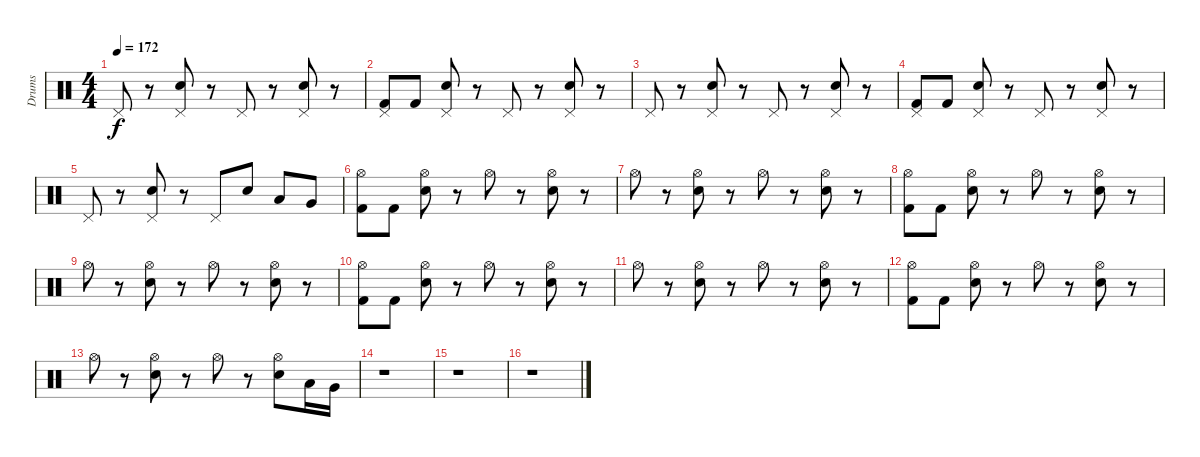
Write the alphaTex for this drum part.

\track ("Drums" "Drums") {instrument percussion}
\staff {score}
\articulation defaults
\ts (4 4)
\tempo 172
\clef neutral
\ks c "Pedal Hi-Hat (hit)".8{dy f}
r.8 ("Pedal Hi-Hat (hit)" "Electric Snare (hit)").8 r.8 "Pedal Hi-Hat (hit)".8 r.8 ("Pedal Hi-Hat (hit)" "Electric Snare (hit)").8 r.8 |
("Pedal Hi-Hat (hit)" "Kick (hit) 2").8 "Kick (hit) 2".8 ("Pedal Hi-Hat (hit)" "Electric Snare (hit)").8 r.8 "Pedal Hi-Hat (hit)".8 r.8 ("Pedal Hi-Hat (hit)" "Electric Snare (hit)").8 r.8 |
"Pedal Hi-Hat (hit)".8 r.8 ("Pedal Hi-Hat (hit)" "Electric Snare (hit)").8 r.8 "Pedal Hi-Hat (hit)".8 r.8 ("Pedal Hi-Hat (hit)" "Electric Snare (hit)").8 r.8 |
("Pedal Hi-Hat (hit)" "Kick (hit) 2").8 "Kick (hit) 2".8 ("Pedal Hi-Hat (hit)" "Electric Snare (hit)").8 r.8 "Pedal Hi-Hat (hit)".8 r.8 ("Pedal Hi-Hat (hit)" "Electric Snare (hit)").8 r.8 |
"Pedal Hi-Hat (hit)".8 r.8 ("Pedal Hi-Hat (hit)" "Electric Snare (hit)").8 r.8 "Pedal Hi-Hat (hit)".8 "Electric Snare (hit)".8 "Low Tom (hit)".8 "Very Low Tom (hit)".8 |
("Hi-Hat (open)" "Kick (hit) 2").8 "Kick (hit) 2".8 ("Hi-Hat (open)" "Electric Snare (hit)").8 r.8 "Hi-Hat (open)".8 r.8 ("Hi-Hat (open)" "Electric Snare (hit)").8 r.8 |
"Hi-Hat (open)".8 r.8 ("Hi-Hat (open)" "Electric Snare (hit)").8 r.8 "Hi-Hat (open)".8 r.8 ("Hi-Hat (open)" "Electric Snare (hit)").8 r.8 |
("Hi-Hat (open)" "Kick (hit) 2").8 "Kick (hit) 2".8 ("Hi-Hat (open)" "Electric Snare (hit)").8 r.8 "Hi-Hat (open)".8 r.8 ("Hi-Hat (open)" "Electric Snare (hit)").8 r.8 |
"Hi-Hat (open)".8 r.8 ("Hi-Hat (open)" "Electric Snare (hit)").8 r.8 "Hi-Hat (open)".8 r.8 ("Hi-Hat (open)" "Electric Snare (hit)").8 r.8 |
("Hi-Hat (open)" "Kick (hit) 2").8 "Kick (hit) 2".8 ("Hi-Hat (open)" "Electric Snare (hit)").8 r.8 "Hi-Hat (open)".8 r.8 ("Hi-Hat (open)" "Electric Snare (hit)").8 r.8 |
"Hi-Hat (open)".8 r.8 ("Hi-Hat (open)" "Electric Snare (hit)").8 r.8 "Hi-Hat (open)".8 r.8 ("Hi-Hat (open)" "Electric Snare (hit)").8 r.8 |
("Hi-Hat (open)" "Kick (hit) 2").8 "Kick (hit) 2".8 ("Hi-Hat (open)" "Electric Snare (hit)").8 r.8 "Hi-Hat (open)".8 r.8 ("Hi-Hat (open)" "Electric Snare (hit)").8 r.8 |
"Hi-Hat (open)".8 r.8 ("Hi-Hat (open)" "Electric Snare (hit)").8 r.8 "Hi-Hat (open)".8 r.8 ("Hi-Hat (open)" "Electric Snare (hit)").8 "Low Tom (hit)".16 "Very Low Tom (hit)".16 |
r.1 |
r.1 |
r.1
